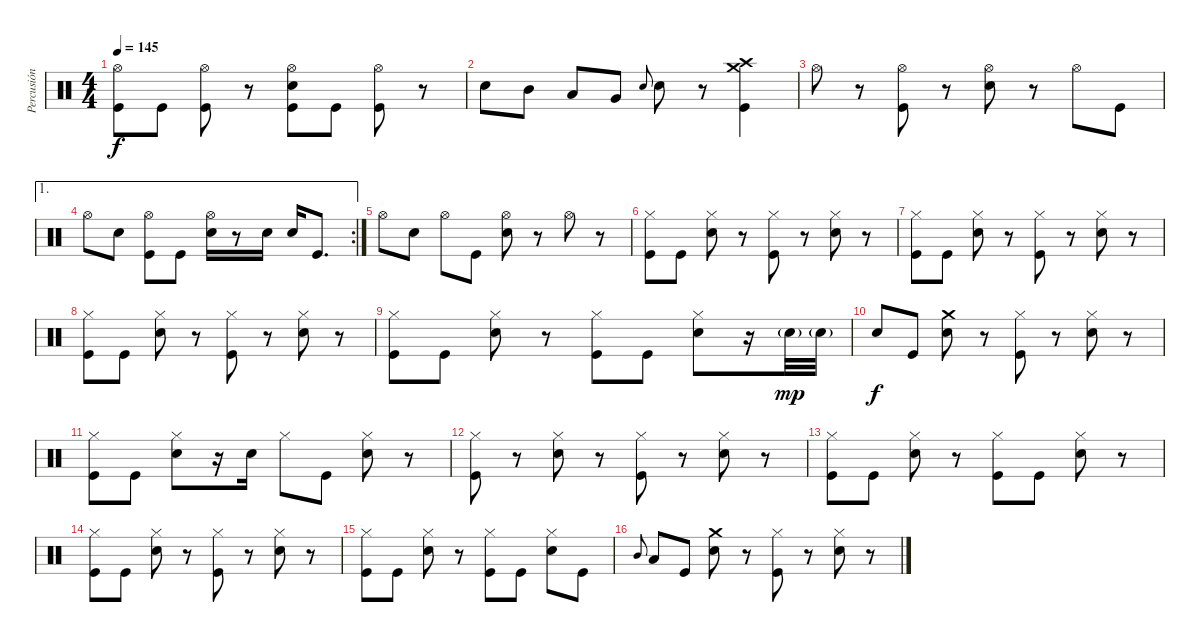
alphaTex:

\track ("Percusión" "Percusión") {instrument percussion}
\staff {score}
\articulation defaults
\ts (4 4)
\tempo 145
\clef neutral
\ks c
("Hi-Hat (open)" "Kick (hit)").8{dy f} "Kick (hit)".8 ("Hi-Hat (open)" "Kick (hit)").8 r.8 ("Hi-Hat (open)" "Snare (hit) 2" "Kick (hit)").8 "Kick (hit)".8 ("Hi-Hat (open)" "Kick (hit)").8 r.8 |
"Snare (hit) 2".8 "Mid Tom (hit)".8 "Low Tom (hit)".8 "Very Low Tom (hit)".8 "Snare (hit) 2".8{gr onbeat} "Snare (hit) 2".8 r.8 ("Crash medium (hit)" "Crash high (hit)" "Kick (hit)").4 |
"Hi-Hat (open)".8 r.8 ("Hi-Hat (open)" "Kick (hit)").8 r.8 ("Hi-Hat (open)" "Snare (hit) 2").8 r.8 "Hi-Hat (open)".8 "Kick (hit)".8 |
\ae 1
\rc 2 "Hi-Hat (open)".8 "Snare (hit) 2".8
("Hi-Hat (open)" "Kick (hit)").8 "Kick (hit)".8 ("Hi-Hat (open)" "Snare (hit) 2").16 r.8 "Snare (hit) 2".16 "Snare (hit) 2".16 "Kick (hit)".8{d} |
"Hi-Hat (open)".8 "Snare (hit) 2".8 "Hi-Hat (open)".8 "Kick (hit)".8 ("Hi-Hat (open)" "Snare (hit) 2").8 r.8 "Hi-Hat (open)".8 r.8 |
("Hi-Hat (closed)" "Kick (hit)").8 "Kick (hit)".8 ("Hi-Hat (closed)" "Snare (hit) 2").8 r.8 ("Hi-Hat (closed)" "Kick (hit)").8 r.8 ("Hi-Hat (closed)" "Snare (hit) 2").8 r.8 |
("Hi-Hat (closed)" "Kick (hit)").8 "Kick (hit)".8 ("Hi-Hat (closed)" "Snare (hit) 2").8 r.8 ("Hi-Hat (closed)" "Kick (hit)").8 r.8 ("Hi-Hat (closed)" "Snare (hit) 2").8 r.8 |
("Hi-Hat (closed)" "Kick (hit)").8 "Kick (hit)".8 ("Hi-Hat (closed)" "Snare (hit) 2").8 r.8 ("Hi-Hat (closed)" "Kick (hit)").8 r.8 ("Hi-Hat (closed)" "Snare (hit) 2").8 r.8 |
("Hi-Hat (closed)" "Kick (hit)").8 "Kick (hit)".8 ("Hi-Hat (closed)" "Snare (hit) 2").8 r.8 ("Hi-Hat (closed)" "Kick (hit)").8 "Kick (hit)".8 ("Hi-Hat (closed)" "Snare (hit) 2").8 r.16 "Snare (hit) 2"{g}.32{dy mp} "Snare (hit) 2"{g}.32 |
"Snare (hit) 2".8{dy f} "Kick (hit)".8 ("Crash medium (hit)" "Snare (hit) 2").8 r.8 ("Hi-Hat (closed)" "Kick (hit)").8 r.8 ("Hi-Hat (closed)" "Snare (hit) 2").8 r.8 |
("Hi-Hat (closed)" "Kick (hit)").8 "Kick (hit)".8 ("Hi-Hat (closed)" "Snare (hit) 2").8 r.16 "Snare (hit) 2".16 "Hi-Hat (closed)".8 "Kick (hit)".8 ("Hi-Hat (closed)" "Snare (hit) 2").8 r.8 |
("Hi-Hat (closed)" "Kick (hit)").8 r.8 ("Hi-Hat (closed)" "Snare (hit) 2").8 r.8 ("Hi-Hat (closed)" "Kick (hit)").8 r.8 ("Hi-Hat (closed)" "Snare (hit) 2").8 r.8 |
("Hi-Hat (closed)" "Kick (hit)").8 "Kick (hit)".8 ("Hi-Hat (closed)" "Snare (hit) 2").8 r.8 ("Hi-Hat (closed)" "Kick (hit)").8 "Kick (hit)".8 ("Hi-Hat (closed)" "Snare (hit) 2").8 r.8 |
("Hi-Hat (closed)" "Kick (hit)").8 "Kick (hit)".8 ("Hi-Hat (closed)" "Snare (hit) 2").8 r.8 ("Hi-Hat (closed)" "Kick (hit)").8 r.8 ("Hi-Hat (closed)" "Snare (hit) 2").8 r.8 |
("Hi-Hat (closed)" "Kick (hit)").8 "Kick (hit)".8 ("Hi-Hat (closed)" "Snare (hit) 2").8 r.8 ("Hi-Hat (closed)" "Kick (hit)").8 "Kick (hit)".8 ("Hi-Hat (closed)" "Snare (hit) 2").8 "Kick (hit)".8 |
"Mid Tom (hit)".8{gr onbeat} "Low Tom (hit)".8 "Kick (hit)".8 ("Crash medium (hit)" "Snare (hit) 2").8 r.8 ("Hi-Hat (closed)" "Kick (hit)").8 r.8 ("Hi-Hat (closed)" "Snare (hit) 2").8 r.8
